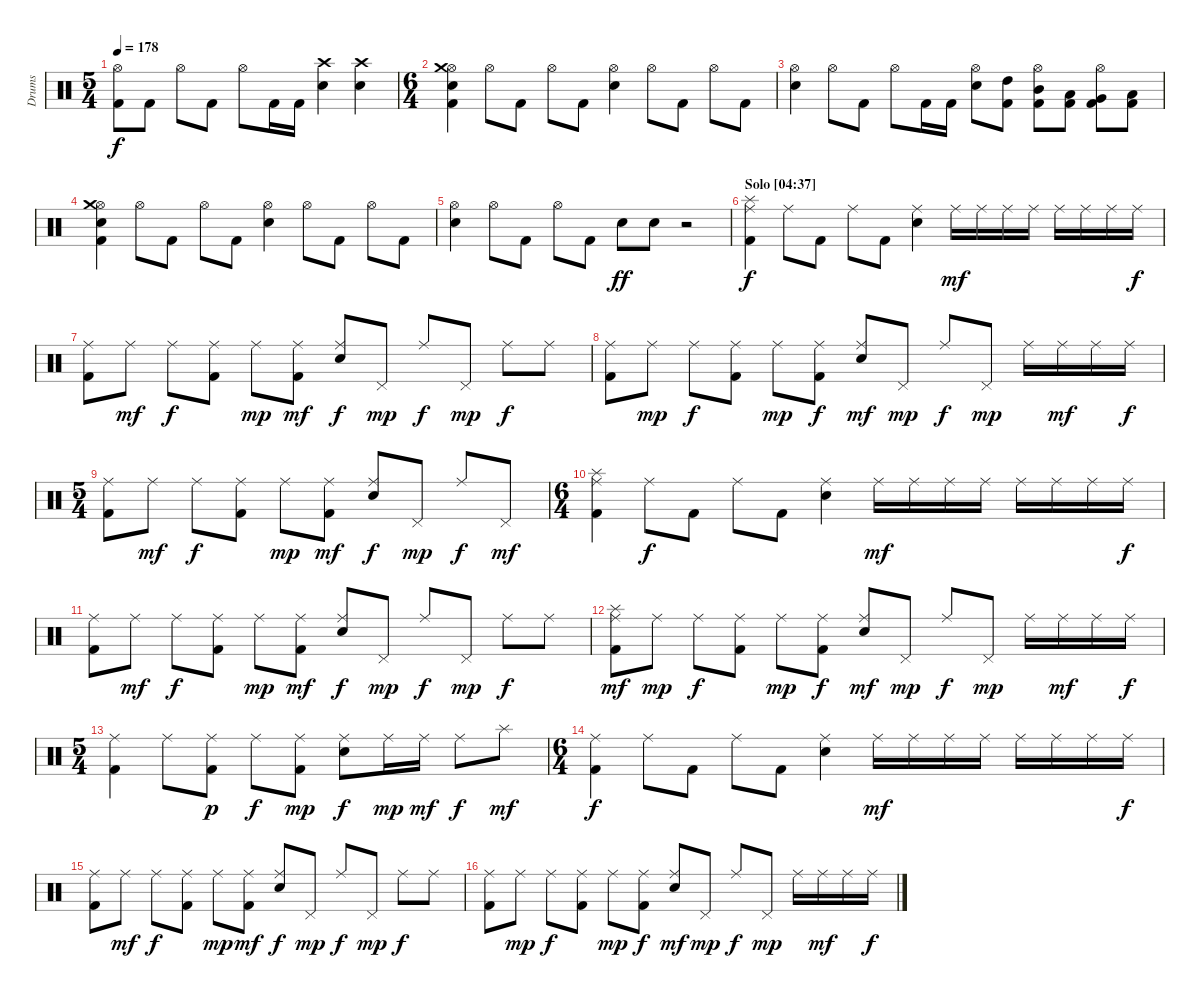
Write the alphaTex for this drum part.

\track ("Drums" "Drums") {instrument percussion}
\staff {score}
\articulation defaults
\ts (5 4)
\tempo 178
\clef neutral
\ks c
("Hi-Hat (open)" "Kick (hit) 2").8{dy f} "Kick (hit) 2".8 "Hi-Hat (open)".8 "Kick (hit) 2".8 "Hi-Hat (open)".8 "Kick (hit) 2".16 "Kick (hit) 2".16 ("Crash high (hit)" "Electric Snare (hit)").4 ("Crash high (hit)" "Electric Snare (hit)").4 |
\ts (6 4)
("Hi-Hat (open)" "Crash medium (hit)" "Electric Snare (hit)" "Kick (hit) 2").4 "Hi-Hat (open)".8 "Kick (hit) 2".8 "Hi-Hat (open)".8 "Kick (hit) 2".8 ("Hi-Hat (open)" "Electric Snare (hit)").4 "Hi-Hat (open)".8 "Kick (hit) 2".8 "Hi-Hat (open)".8 "Kick (hit) 2".8 |
("Hi-Hat (open)" "Electric Snare (hit)").4 "Hi-Hat (open)".8 "Kick (hit) 2".8 "Hi-Hat (open)".8 "Kick (hit) 2".16 "Kick (hit) 2".16 ("Hi-Hat (open)" "Electric Snare (hit)").8 ("High Tom (hit)" "Kick (hit) 2").8 ("Hi-Hat (open)" "Mid Tom (hit)" "Kick (hit) 2").8 ("Low Tom (hit)" "Kick (hit) 2").8 ("Hi-Hat (open)" "Very Low Tom (hit)" "Kick (hit) 2").8 ("Low Floor Tom (hit)" "Kick (hit) 2").8 |
("Hi-Hat (open)" "Crash medium (hit)" "Electric Snare (hit)" "Kick (hit) 2").4 "Hi-Hat (open)".8 "Kick (hit) 2".8 "Hi-Hat (open)".8 "Kick (hit) 2".8 ("Hi-Hat (open)" "Electric Snare (hit)").4 "Hi-Hat (open)".8 "Kick (hit) 2".8 "Hi-Hat (open)".8 "Kick (hit) 2".8 |
("Hi-Hat (open)" "Electric Snare (hit)").4 "Hi-Hat (open)".8 "Kick (hit) 2".8 "Hi-Hat (open)".8 "Kick (hit) 2".8 "Electric Snare (hit)".8{dy ff} "Electric Snare (hit)".8 r.2 |
\section ("" "Solo [04:37]")
("Ride (middle)" "Splash (hit)" "Kick (hit) 2").4{dy f} "Ride (middle)".8 "Kick (hit) 2".8 "Ride (middle)".8 "Kick (hit) 2".8 ("Ride (middle)" "Electric Snare (hit)").4 "Ride (middle)".16{dy mf} "Ride (middle)".16 "Ride (middle)".16 "Ride (middle)".16 "Ride (middle)".16 "Ride (middle)".16 "Ride (middle)".16 "Ride (middle)".16{dy f} |
("Ride (middle)" "Kick (hit) 2").8 "Ride (middle)".8{dy mf} "Ride (middle)".8{dy f} ("Ride (middle)" "Kick (hit) 2").8 "Ride (middle)".8{dy mp} ("Ride (middle)" "Kick (hit) 2").8{dy mf} ("Ride (middle)" "Electric Snare (hit)").8{dy f} "Pedal Hi-Hat (hit)".8{dy mp} "Ride (middle)".8{dy f} "Pedal Hi-Hat (hit)".8{dy mp} "Ride (middle)".8{dy f} "Ride (middle)".8 |
("Ride (middle)" "Kick (hit) 2").8 "Ride (middle)".8{dy mp} "Ride (middle)".8{dy f} ("Ride (middle)" "Kick (hit) 2").8 "Ride (middle)".8{dy mp} ("Ride (middle)" "Kick (hit) 2").8{dy f} ("Ride (middle)" "Electric Snare (hit)").8{dy mf} "Pedal Hi-Hat (hit)".8{dy mp} "Ride (middle)".8{dy f} "Pedal Hi-Hat (hit)".8{dy mp} "Ride (middle)".16 "Ride (middle)".16{dy mf} "Ride (middle)".16 "Ride (middle)".16{dy f} |
\ts (5 4)
("Ride (middle)" "Kick (hit) 2").8 "Ride (middle)".8{dy mf} "Ride (middle)".8{dy f} ("Ride (middle)" "Kick (hit) 2").8 "Ride (middle)".8{dy mp} ("Ride (middle)" "Kick (hit) 2").8{dy mf} ("Ride (middle)" "Electric Snare (hit)").8{dy f} "Pedal Hi-Hat (hit)".8{dy mp} "Ride (middle)".8{dy f} "Pedal Hi-Hat (hit)".8{dy mf} |
\ts (6 4)
\section ("" "")
("Ride (middle)" "Splash (hit)" "Kick (hit) 2").4 "Ride (middle)".8{dy f} "Kick (hit) 2".8 "Ride (middle)".8 "Kick (hit) 2".8 ("Ride (middle)" "Electric Snare (hit)").4 "Ride (middle)".16{dy mf} "Ride (middle)".16 "Ride (middle)".16 "Ride (middle)".16 "Ride (middle)".16 "Ride (middle)".16 "Ride (middle)".16 "Ride (middle)".16{dy f} |
("Ride (middle)" "Kick (hit) 2").8 "Ride (middle)".8{dy mf} "Ride (middle)".8{dy f} ("Ride (middle)" "Kick (hit) 2").8 "Ride (middle)".8{dy mp} ("Ride (middle)" "Kick (hit) 2").8{dy mf} ("Ride (middle)" "Electric Snare (hit)").8{dy f} "Pedal Hi-Hat (hit)".8{dy mp} "Ride (middle)".8{dy f} "Pedal Hi-Hat (hit)".8{dy mp} "Ride (middle)".8{dy f} "Ride (middle)".8 |
("Ride (middle)" "Splash (hit)" "Kick (hit) 2").8{dy mf} "Ride (middle)".8{dy mp} "Ride (middle)".8{dy f} ("Ride (middle)" "Kick (hit) 2").8 "Ride (middle)".8{dy mp} ("Ride (middle)" "Kick (hit) 2").8{dy f} ("Ride (middle)" "Electric Snare (hit)").8{dy mf} "Pedal Hi-Hat (hit)".8{dy mp} "Ride (middle)".8{dy f} "Pedal Hi-Hat (hit)".8{dy mp} "Ride (middle)".16 "Ride (middle)".16{dy mf} "Ride (middle)".16 "Ride (middle)".16{dy f} |
\ts (5 4)
("Ride (middle)" "Kick (hit) 2").4 "Ride (middle)".8 ("Ride (middle)" "Kick (hit) 2").8{dy p} "Ride (middle)".8{dy f} ("Ride (middle)" "Kick (hit) 2").8{dy mp} ("Ride (middle)" "Electric Snare (hit)").8{dy f} "Ride (middle)".16{dy mp} "Ride (middle)".16{dy mf} "Ride (middle)".8{dy f} "Splash (hit)".8{dy mf} |
\ts (6 4)
\section ("" "")
("Ride (middle)" "Kick (hit) 2").4{dy f} "Ride (middle)".8 "Kick (hit) 2".8 "Ride (middle)".8 "Kick (hit) 2".8 ("Ride (middle)" "Electric Snare (hit)").4 "Ride (middle)".16{dy mf} "Ride (middle)".16 "Ride (middle)".16 "Ride (middle)".16 "Ride (middle)".16 "Ride (middle)".16 "Ride (middle)".16 "Ride (middle)".16{dy f} |
("Ride (middle)" "Kick (hit) 2").8 "Ride (middle)".8{dy mf} "Ride (middle)".8{dy f} ("Ride (middle)" "Kick (hit) 2").8 "Ride (middle)".8{dy mp} ("Ride (middle)" "Kick (hit) 2").8{dy mf} ("Ride (middle)" "Electric Snare (hit)").8{dy f} "Pedal Hi-Hat (hit)".8{dy mp} "Ride (middle)".8{dy f} "Pedal Hi-Hat (hit)".8{dy mp} "Ride (middle)".8{dy f} "Ride (middle)".8 |
("Ride (middle)" "Kick (hit) 2").8 "Ride (middle)".8{dy mp} "Ride (middle)".8{dy f} ("Ride (middle)" "Kick (hit) 2").8 "Ride (middle)".8{dy mp} ("Ride (middle)" "Kick (hit) 2").8{dy f} ("Ride (middle)" "Electric Snare (hit)").8{dy mf} "Pedal Hi-Hat (hit)".8{dy mp} "Ride (middle)".8{dy f} "Pedal Hi-Hat (hit)".8{dy mp} "Ride (middle)".16 "Ride (middle)".16{dy mf} "Ride (middle)".16 "Ride (middle)".16{dy f}
